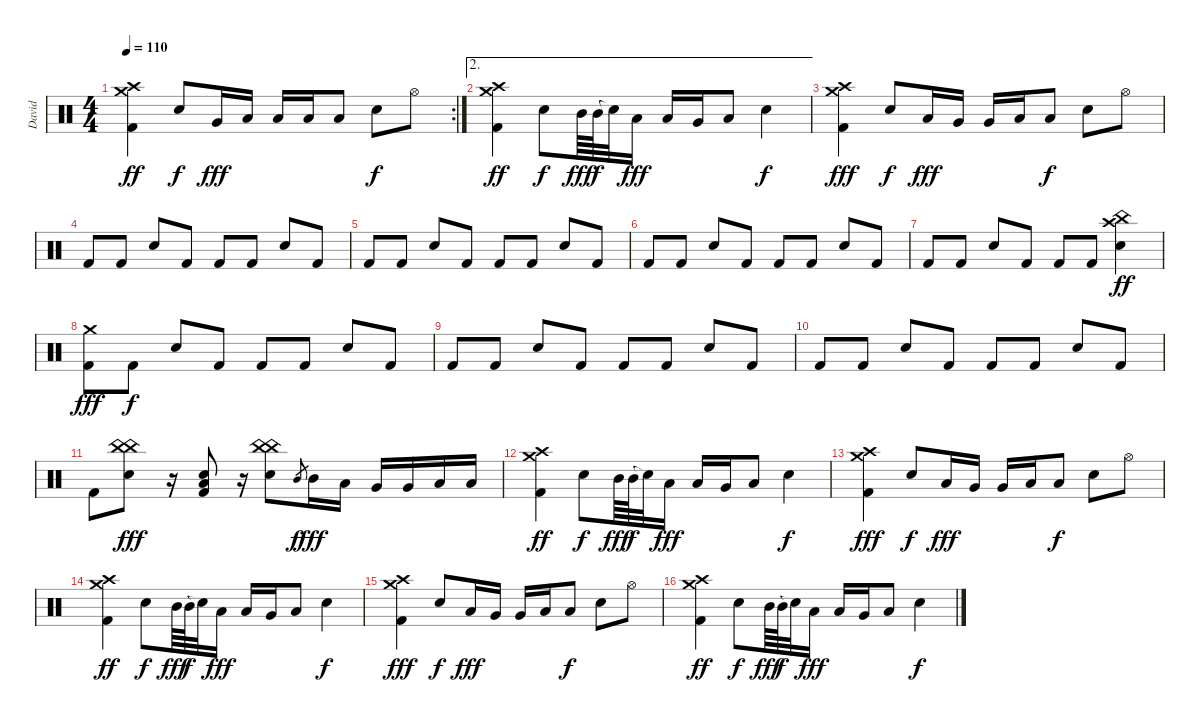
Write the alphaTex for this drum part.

\track ("David" "David") {instrument percussion}
\staff {score}
\articulation defaults
\rc 2
\ts (4 4)
\tempo 110
\clef neutral
\ks c
("Crash medium (hit)" "Crash high (hit)" "Kick (hit) 2").4{dy ff} "Snare (hit) 2".8{dy f} "Very Low Tom (hit)".16{dy fff} "Low Floor Tom (hit)".16 "Low Floor Tom (hit)".16 "Low Floor Tom (hit)".16 "Low Floor Tom (hit)".8 "Snare (hit) 2".8{dy f} "Hi-Hat (open)".8 |
\ae 2
("Crash medium (hit)" "Crash high (hit)" "Kick (hit) 2").4{dy ff} "Snare (hit) 2".8{dy f} "Mid Tom (hit)".64{dy fff} "Mid Tom (hit)".64{dy f} "Snare (hit)"{t}.32 "Low Tom (hit)".16{dy fff} "Low Tom (hit)".16 "Very Low Tom (hit)".16 "Low Floor Tom (hit)".8 "Snare (hit) 2".4{dy f} |
("Crash medium (hit)" "Crash high (hit)" "Kick (hit) 2").4{dy fff} "Snare (hit) 2".8{dy f} "Low Tom (hit)".16{dy fff} "Very Low Tom (hit)".16 "Very Low Tom (hit)".16 "Low Floor Tom (hit)".16 "Low Floor Tom (hit)".8{dy f} "Snare (hit) 2".8 "Hi-Hat (open)".8 |
"Kick (hit) 2".8 "Kick (hit) 2".8 "Snare (hit) 2".8 "Kick (hit) 2".8 "Kick (hit) 2".8 "Kick (hit) 2".8 "Snare (hit) 2".8 "Kick (hit) 2".8 |
"Kick (hit) 2".8 "Kick (hit) 2".8 "Snare (hit) 2".8 "Kick (hit) 2".8 "Kick (hit) 2".8 "Kick (hit) 2".8 "Snare (hit) 2".8 "Kick (hit) 2".8 |
"Kick (hit) 2".8 "Kick (hit) 2".8 "Snare (hit) 2".8 "Kick (hit) 2".8 "Kick (hit) 2".8 "Kick (hit) 2".8 "Snare (hit) 2".8 "Kick (hit) 2".8 |
"Kick (hit) 2".8 "Kick (hit) 2".8 "Snare (hit) 2".8 "Kick (hit) 2".8 "Kick (hit) 2".8 "Kick (hit) 2".8 ("Snare (hit) 2" "China (hit)" "Crash high (hit)").4{dy ff} |
("Crash medium (hit)" "Kick (hit) 2").8{dy fff} "Kick (hit) 2".8{dy f} "Snare (hit) 2".8 "Kick (hit) 2".8 "Kick (hit) 2".8 "Kick (hit) 2".8 "Snare (hit) 2".8 "Kick (hit) 2".8 |
"Kick (hit) 2".8 "Kick (hit) 2".8 "Snare (hit) 2".8 "Kick (hit) 2".8 "Kick (hit) 2".8 "Kick (hit) 2".8 "Snare (hit) 2".8 "Kick (hit) 2".8 |
"Kick (hit) 2".8 "Kick (hit) 2".8 "Snare (hit) 2".8 "Kick (hit) 2".8 "Kick (hit) 2".8 "Kick (hit) 2".8 "Snare (hit) 2".8 "Kick (hit) 2".8 |
"Kick (hit) 2".8 ("Snare (hit) 2" "China (hit)" "China (hit)").8{dy fff} r.16 ("Snare (hit) 2" "Low Floor Tom (hit)" "Kick (hit) 2").8 r.16 ("Snare (hit) 2" "China (hit)" "China (hit)").8 "Mid Tom (hit)".8{gr dy f} "Mid Tom (hit)".16{dy fff} "Low Tom (hit)".16 "Very Low Tom (hit)".16 "Very Low Tom (hit)".16 "Low Floor Tom (hit)".16 "Low Floor Tom (hit)".16 |
("Crash medium (hit)" "Crash high (hit)" "Kick (hit) 2").4{dy ff} "Snare (hit) 2".8{dy f} "Mid Tom (hit)".64{dy fff} "Mid Tom (hit)".64{dy f} "Snare (hit)"{t}.32 "Low Tom (hit)".16{dy fff} "Low Tom (hit)".16 "Very Low Tom (hit)".16 "Low Floor Tom (hit)".8 "Snare (hit) 2".4{dy f} |
("Crash medium (hit)" "Crash high (hit)" "Kick (hit) 2").4{dy fff} "Snare (hit) 2".8{dy f} "Low Tom (hit)".16{dy fff} "Very Low Tom (hit)".16 "Very Low Tom (hit)".16 "Low Floor Tom (hit)".16 "Low Floor Tom (hit)".8{dy f} "Snare (hit) 2".8 "Hi-Hat (open)".8 |
("Crash medium (hit)" "Crash high (hit)" "Kick (hit) 2").4{dy ff} "Snare (hit) 2".8{dy f} "Mid Tom (hit)".64{dy fff} "Mid Tom (hit)".64{dy f} "Snare (hit)"{t}.32 "Low Tom (hit)".16{dy fff} "Low Tom (hit)".16 "Very Low Tom (hit)".16 "Low Floor Tom (hit)".8 "Snare (hit) 2".4{dy f} |
("Crash medium (hit)" "Crash high (hit)" "Kick (hit) 2").4{dy fff} "Snare (hit) 2".8{dy f} "Low Tom (hit)".16{dy fff} "Very Low Tom (hit)".16 "Very Low Tom (hit)".16 "Low Floor Tom (hit)".16 "Low Floor Tom (hit)".8{dy f} "Snare (hit) 2".8 "Hi-Hat (open)".8 |
("Crash medium (hit)" "Crash high (hit)" "Kick (hit) 2").4{dy ff} "Snare (hit) 2".8{dy f} "Mid Tom (hit)".64{dy fff} "Mid Tom (hit)".64{dy f} "Snare (hit)"{t}.32 "Low Tom (hit)".16{dy fff} "Low Tom (hit)".16 "Very Low Tom (hit)".16 "Low Floor Tom (hit)".8 "Snare (hit) 2".4{dy f}
